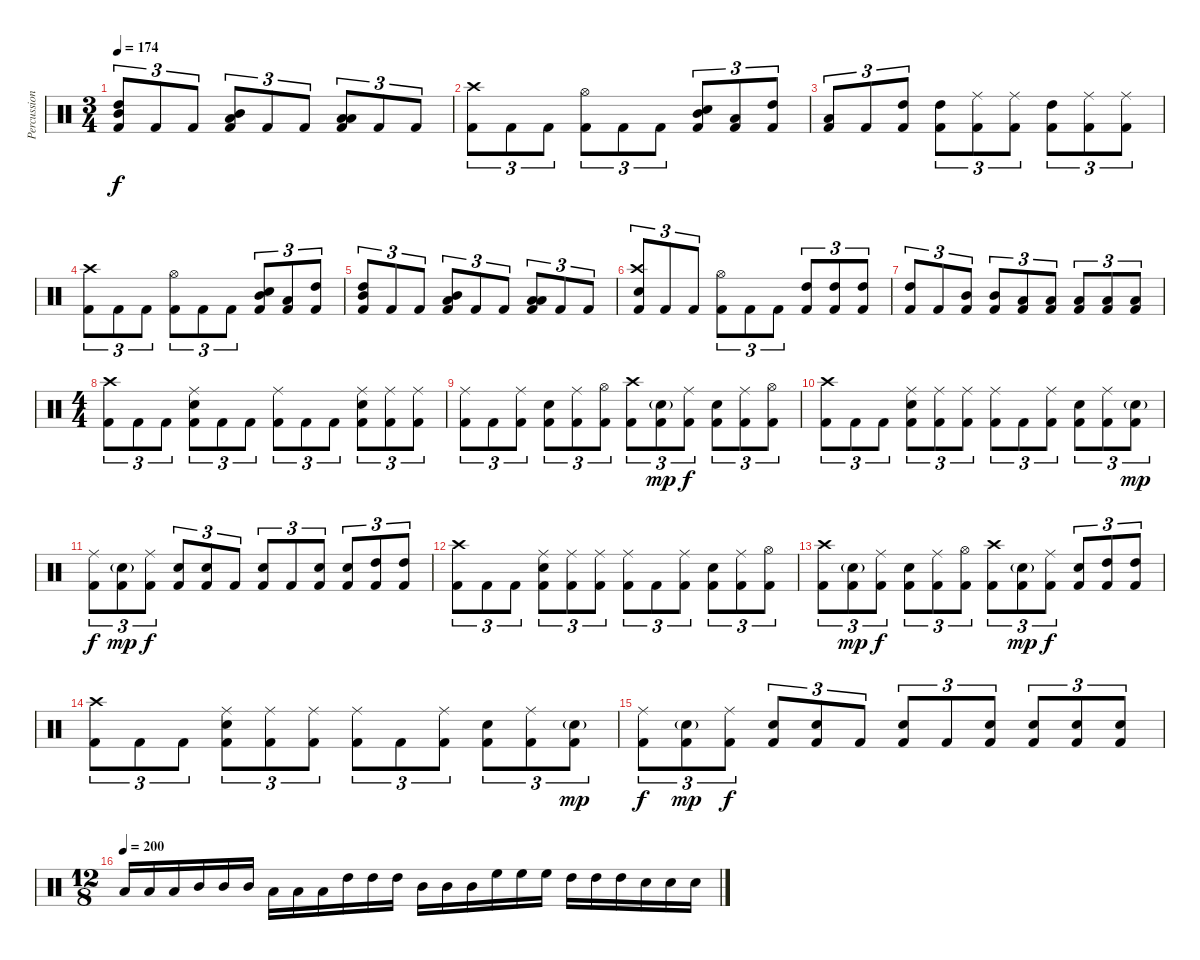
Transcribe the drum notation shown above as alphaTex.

\track ("Percussion" "Percussion") {instrument percussion}
\staff {score}
\articulation defaults
\ts (3 4)
\tempo 174
\clef neutral
\ks c
("High Tom (hit)" "Mid Tom (hit)" "Kick (hit) 2").8{tu (3 2) dy f} "Kick (hit) 2".8{tu (3 2)} "Kick (hit) 2".8{tu (3 2)} ("Mid Tom (hit)" "Low Tom (hit)" "Kick (hit) 2").8{tu (3 2)} "Kick (hit) 2".8{tu (3 2)} "Kick (hit) 2".8{tu (3 2)} ("Low Tom (hit)" "Low Floor Tom (hit)" "Kick (hit) 2").8{tu (3 2)} "Kick (hit) 2".8{tu (3 2)} "Kick (hit) 2".8{tu (3 2)} |
("Crash high (hit)" "Kick (hit) 2").8{tu (3 2)} "Kick (hit) 2".8{tu (3 2)} "Kick (hit) 2".8{tu (3 2)} ("Hi-Hat (open)" "Kick (hit) 2").8{tu (3 2)} "Kick (hit) 2".8{tu (3 2)} "Kick (hit) 2".8{tu (3 2)} ("Mid Tom (hit)" "Electric Snare (hit)" "Kick (hit) 2").8{tu (3 2)} ("Low Tom (hit)" "Kick (hit) 2").8{tu (3 2)} ("High Tom (hit)" "Kick (hit) 2").8{tu (3 2)} |
("Low Tom (hit)" "Kick (hit) 2").8{tu (3 2)} "Kick (hit) 2".8{tu (3 2)} ("High Tom (hit)" "Kick (hit) 2").8{tu (3 2)} ("High Tom (hit)" "Kick (hit) 2").8{tu (3 2)} ("Ride (middle)" "Kick (hit) 2").8{tu (3 2)} ("Ride (middle)" "Kick (hit) 2").8{tu (3 2)} ("High Tom (hit)" "Kick (hit) 2").8{tu (3 2)} ("Ride (middle)" "Kick (hit) 2").8{tu (3 2)} ("Ride (middle)" "Kick (hit) 2").8{tu (3 2)} |
("Crash high (hit)" "Kick (hit) 2").8{tu (3 2)} "Kick (hit) 2".8{tu (3 2)} "Kick (hit) 2".8{tu (3 2)} ("Hi-Hat (open)" "Kick (hit) 2").8{tu (3 2)} "Kick (hit) 2".8{tu (3 2)} "Kick (hit) 2".8{tu (3 2)} ("Mid Tom (hit)" "Electric Snare (hit)" "Kick (hit) 2").8{tu (3 2)} ("Low Tom (hit)" "Kick (hit) 2").8{tu (3 2)} ("High Tom (hit)" "Kick (hit) 2").8{tu (3 2)} |
("High Tom (hit)" "Mid Tom (hit)" "Kick (hit) 2").8{tu (3 2)} "Kick (hit) 2".8{tu (3 2)} "Kick (hit) 2".8{tu (3 2)} ("Mid Tom (hit)" "Low Tom (hit)" "Kick (hit) 2").8{tu (3 2)} "Kick (hit) 2".8{tu (3 2)} "Kick (hit) 2".8{tu (3 2)} ("Low Tom (hit)" "Low Floor Tom (hit)" "Kick (hit) 2").8{tu (3 2)} "Kick (hit) 2".8{tu (3 2)} "Kick (hit) 2".8{tu (3 2)} |
("Crash high (hit)" "Electric Snare (hit)" "Kick (hit) 2").8{tu (3 2)} "Kick (hit) 2".8{tu (3 2)} "Kick (hit) 2".8{tu (3 2)} ("Hi-Hat (open)" "Kick (hit) 2").8{tu (3 2)} "Kick (hit) 2".8{tu (3 2)} "Kick (hit) 2".8{tu (3 2)} ("High Tom (hit)" "Kick (hit) 2").8{tu (3 2)} ("High Tom (hit)" "Kick (hit) 2").8{tu (3 2)} ("High Tom (hit)" "Kick (hit) 2").8{tu (3 2)} |
("High Tom (hit)" "Kick (hit) 2").8{tu (3 2)} "Kick (hit) 2".8{tu (3 2)} ("Mid Tom (hit)" "Kick (hit) 2").8{tu (3 2)} ("Mid Tom (hit)" "Kick (hit) 2").8{tu (3 2)} ("Low Tom (hit)" "Kick (hit) 2").8{tu (3 2)} ("Low Tom (hit)" "Kick (hit) 2").8{tu (3 2)} ("Low Floor Tom (hit)" "Kick (hit) 2").8{tu (3 2)} ("Low Floor Tom (hit)" "Kick (hit) 2").8{tu (3 2)} ("Low Floor Tom (hit)" "Kick (hit) 2").8{tu (3 2)} |
\ts (4 4)
("Crash high (hit)" "Kick (hit) 2").8{tu (3 2)} "Kick (hit) 2".8{tu (3 2)} "Kick (hit) 2".8{tu (3 2)} ("Ride (middle)" "Electric Snare (hit)" "Kick (hit) 2").8{tu (3 2)} "Kick (hit) 2".8{tu (3 2)} "Kick (hit) 2".8{tu (3 2)} ("Ride (middle)" "Kick (hit) 2").8{tu (3 2)} "Kick (hit) 2".8{tu (3 2)} "Kick (hit) 2".8{tu (3 2)} ("Ride (middle)" "Electric Snare (hit)" "Kick (hit) 2").8{tu (3 2)} ("Ride (middle)" "Kick (hit) 2").8{tu (3 2)} ("Ride (middle)" "Kick (hit) 2").8{tu (3 2)} |
("Ride (middle)" "Kick (hit) 2").8{tu (3 2)} "Kick (hit) 2".8{tu (3 2)} ("Ride (middle)" "Kick (hit) 2").8{tu (3 2)} ("Electric Snare (hit)" "Kick (hit) 2").8{tu (3 2)} ("Ride (middle)" "Kick (hit) 2").8{tu (3 2)} ("Hi-Hat (open)" "Kick (hit) 2").8{tu (3 2)} ("Crash high (hit)" "Kick (hit) 2").8{tu (3 2)} ("Electric Snare (hit)"{g} "Kick (hit) 2").8{tu (3 2) dy mp} ("Ride (middle)" "Kick (hit) 2").8{tu (3 2) dy f} ("Electric Snare (hit)" "Kick (hit) 2").8{tu (3 2)} ("Ride (middle)" "Kick (hit) 2").8{tu (3 2)} ("Hi-Hat (open)" "Kick (hit) 2").8{tu (3 2)} |
("Crash high (hit)" "Kick (hit) 2").8{tu (3 2)} "Kick (hit) 2".8{tu (3 2)} "Kick (hit) 2".8{tu (3 2)} ("Ride (middle)" "Electric Snare (hit)" "Kick (hit) 2").8{tu (3 2)} ("Ride (middle)" "Kick (hit) 2").8{tu (3 2)} ("Ride (middle)" "Kick (hit) 2").8{tu (3 2)} ("Ride (middle)" "Kick (hit) 2").8{tu (3 2)} "Kick (hit) 2".8{tu (3 2)} ("Ride (middle)" "Kick (hit) 2").8{tu (3 2)} ("Electric Snare (hit)" "Kick (hit) 2").8{tu (3 2)} ("Ride (middle)" "Kick (hit) 2").8{tu (3 2)} ("Electric Snare (hit)"{g} "Kick (hit) 2").8{tu (3 2) dy mp} |
("Ride (middle)" "Kick (hit) 2").8{tu (3 2) dy f} ("Electric Snare (hit)"{g} "Kick (hit) 2").8{tu (3 2) dy mp} ("Ride (middle)" "Kick (hit) 2").8{tu (3 2) dy f} ("Electric Snare (hit)" "Kick (hit) 2").8{tu (3 2)} ("Electric Snare (hit)" "Kick (hit) 2").8{tu (3 2)} "Kick (hit) 2".8{tu (3 2)} ("Electric Snare (hit)" "Kick (hit) 2").8{tu (3 2)} "Kick (hit) 2".8{tu (3 2)} ("Electric Snare (hit)" "Kick (hit) 2").8{tu (3 2)} ("Electric Snare (hit)" "Kick (hit) 2").8{tu (3 2)} ("High Tom (hit)" "Kick (hit) 2").8{tu (3 2)} ("High Tom (hit)" "Kick (hit) 2").8{tu (3 2)} |
("Crash high (hit)" "Kick (hit) 2").8{tu (3 2)} "Kick (hit) 2".8{tu (3 2)} "Kick (hit) 2".8{tu (3 2)} ("Ride (middle)" "Electric Snare (hit)" "Kick (hit) 2").8{tu (3 2)} ("Ride (middle)" "Kick (hit) 2").8{tu (3 2)} ("Ride (middle)" "Kick (hit) 2").8{tu (3 2)} ("Ride (middle)" "Kick (hit) 2").8{tu (3 2)} "Kick (hit) 2".8{tu (3 2)} ("Ride (middle)" "Kick (hit) 2").8{tu (3 2)} ("Electric Snare (hit)" "Kick (hit) 2").8{tu (3 2)} ("Ride (middle)" "Kick (hit) 2").8{tu (3 2)} ("Hi-Hat (open)" "Kick (hit) 2").8{tu (3 2)} |
("Crash high (hit)" "Kick (hit) 2").8{tu (3 2)} ("Electric Snare (hit)"{g} "Kick (hit) 2").8{tu (3 2) dy mp} ("Ride (middle)" "Kick (hit) 2").8{tu (3 2) dy f} ("Electric Snare (hit)" "Kick (hit) 2").8{tu (3 2)} ("Ride (middle)" "Kick (hit) 2").8{tu (3 2)} ("Hi-Hat (open)" "Kick (hit) 2").8{tu (3 2)} ("Crash high (hit)" "Kick (hit) 2").8{tu (3 2)} ("Electric Snare (hit)"{g} "Kick (hit) 2").8{tu (3 2) dy mp} ("Ride (middle)" "Kick (hit) 2").8{tu (3 2) dy f} ("Electric Snare (hit)" "Kick (hit) 2").8{tu (3 2)} ("High Tom (hit)" "Kick (hit) 2").8{tu (3 2)} ("High Tom (hit)" "Kick (hit) 2").8{tu (3 2)} |
("Crash high (hit)" "Kick (hit) 2").8{tu (3 2)} "Kick (hit) 2".8{tu (3 2)} "Kick (hit) 2".8{tu (3 2)} ("Ride (middle)" "Electric Snare (hit)" "Kick (hit) 2").8{tu (3 2)} ("Ride (middle)" "Kick (hit) 2").8{tu (3 2)} ("Ride (middle)" "Kick (hit) 2").8{tu (3 2)} ("Ride (middle)" "Kick (hit) 2").8{tu (3 2)} "Kick (hit) 2".8{tu (3 2)} ("Ride (middle)" "Kick (hit) 2").8{tu (3 2)} ("Electric Snare (hit)" "Kick (hit) 2").8{tu (3 2)} ("Ride (middle)" "Kick (hit) 2").8{tu (3 2)} ("Electric Snare (hit)"{g} "Kick (hit) 2").8{tu (3 2) dy mp} |
("Ride (middle)" "Kick (hit) 2").8{tu (3 2) dy f} ("Electric Snare (hit)"{g} "Kick (hit) 2").8{tu (3 2) dy mp} ("Ride (middle)" "Kick (hit) 2").8{tu (3 2) dy f} ("Electric Snare (hit)" "Kick (hit) 2").8{tu (3 2)} ("Electric Snare (hit)" "Kick (hit) 2").8{tu (3 2)} "Kick (hit) 2".8{tu (3 2)} ("Electric Snare (hit)" "Kick (hit) 2").8{tu (3 2)} "Kick (hit) 2".8{tu (3 2)} ("Electric Snare (hit)" "Kick (hit) 2").8{tu (3 2)} ("Electric Snare (hit)" "Kick (hit) 2").8{tu (3 2)} ("Electric Snare (hit)" "Kick (hit) 2").8{tu (3 2)} ("Electric Snare (hit)" "Kick (hit) 2").8{tu (3 2)} |
\ts (12 8)
\tempo (200)
"Low Floor Tom (hit)".16 "Low Floor Tom (hit)".16 "Low Floor Tom (hit)".16 "Mid Tom (hit)".16 "Mid Tom (hit)".16 "Mid Tom (hit)".16 "Low Tom (hit)".16 "Low Tom (hit)".16 "Low Tom (hit)".16 "High Tom (hit)".16 "High Tom (hit)".16 "High Tom (hit)".16 "Mid Tom (hit)".16 "Mid Tom (hit)".16 "Mid Tom (hit)".16 "High Floor Tom (hit)".16 "High Floor Tom (hit)".16 "High Floor Tom (hit)".16 "High Tom (hit)".16 "High Tom (hit)".16 "High Tom (hit)".16 "Electric Snare (hit)".16 "Electric Snare (hit)".16 "Electric Snare (hit)".16
